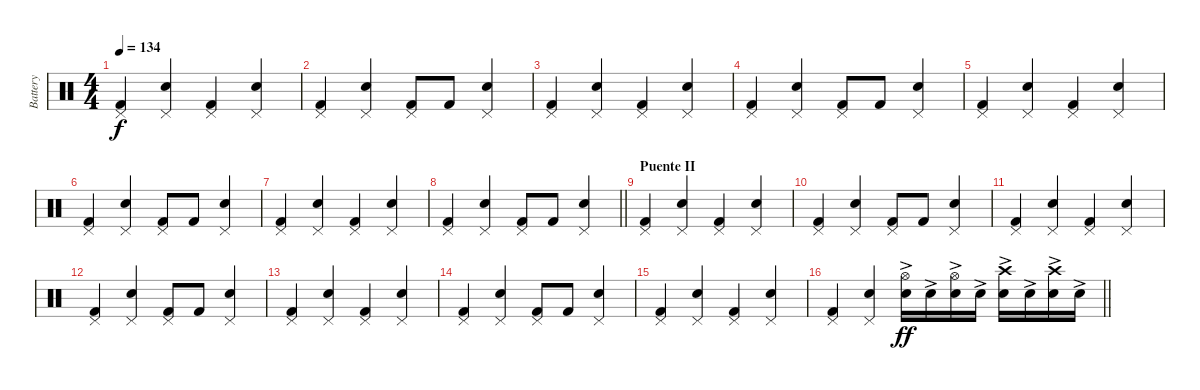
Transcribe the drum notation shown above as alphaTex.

\track ("Battery" "Battery") {instrument percussion}
\staff {score}
\articulation defaults
\ts (4 4)
\tempo 134
\clef neutral
\ks c
("Pedal Hi-Hat (hit)" "Kick (hit) 2").4{dy f} ("Pedal Hi-Hat (hit)" "Snare (hit) 2").4 ("Pedal Hi-Hat (hit)" "Kick (hit) 2").4 ("Pedal Hi-Hat (hit)" "Snare (hit) 2").4 |
("Pedal Hi-Hat (hit)" "Kick (hit) 2").4 ("Pedal Hi-Hat (hit)" "Snare (hit) 2").4 ("Pedal Hi-Hat (hit)" "Kick (hit) 2").8 "Kick (hit) 2".8 ("Pedal Hi-Hat (hit)" "Snare (hit) 2").4 |
("Pedal Hi-Hat (hit)" "Kick (hit) 2").4 ("Pedal Hi-Hat (hit)" "Snare (hit) 2").4 ("Pedal Hi-Hat (hit)" "Kick (hit) 2").4 ("Pedal Hi-Hat (hit)" "Snare (hit) 2").4 |
("Pedal Hi-Hat (hit)" "Kick (hit) 2").4 ("Pedal Hi-Hat (hit)" "Snare (hit) 2").4 ("Pedal Hi-Hat (hit)" "Kick (hit) 2").8 "Kick (hit) 2".8 ("Pedal Hi-Hat (hit)" "Snare (hit) 2").4 |
("Pedal Hi-Hat (hit)" "Kick (hit) 2").4 ("Pedal Hi-Hat (hit)" "Snare (hit) 2").4 ("Pedal Hi-Hat (hit)" "Kick (hit) 2").4 ("Pedal Hi-Hat (hit)" "Snare (hit) 2").4 |
("Pedal Hi-Hat (hit)" "Kick (hit) 2").4 ("Pedal Hi-Hat (hit)" "Snare (hit) 2").4 ("Pedal Hi-Hat (hit)" "Kick (hit) 2").8 "Kick (hit) 2".8 ("Pedal Hi-Hat (hit)" "Snare (hit) 2").4 |
("Pedal Hi-Hat (hit)" "Kick (hit) 2").4 ("Pedal Hi-Hat (hit)" "Snare (hit) 2").4 ("Pedal Hi-Hat (hit)" "Kick (hit) 2").4 ("Pedal Hi-Hat (hit)" "Snare (hit) 2").4 |
\barLineRight lightlight
("Pedal Hi-Hat (hit)" "Kick (hit) 2").4 ("Pedal Hi-Hat (hit)" "Snare (hit) 2").4 ("Pedal Hi-Hat (hit)" "Kick (hit) 2").8 "Kick (hit) 2".8 ("Pedal Hi-Hat (hit)" "Snare (hit) 2").4 |
\section ("" "Puente II")
("Pedal Hi-Hat (hit)" "Kick (hit) 2").4 ("Pedal Hi-Hat (hit)" "Snare (hit) 2").4 ("Pedal Hi-Hat (hit)" "Kick (hit) 2").4 ("Pedal Hi-Hat (hit)" "Snare (hit) 2").4 |
("Pedal Hi-Hat (hit)" "Kick (hit) 2").4 ("Pedal Hi-Hat (hit)" "Snare (hit) 2").4 ("Pedal Hi-Hat (hit)" "Kick (hit) 2").8 "Kick (hit) 2".8 ("Pedal Hi-Hat (hit)" "Snare (hit) 2").4 |
("Pedal Hi-Hat (hit)" "Kick (hit) 2").4 ("Pedal Hi-Hat (hit)" "Snare (hit) 2").4 ("Pedal Hi-Hat (hit)" "Kick (hit) 2").4 ("Pedal Hi-Hat (hit)" "Snare (hit) 2").4 |
("Pedal Hi-Hat (hit)" "Kick (hit) 2").4 ("Pedal Hi-Hat (hit)" "Snare (hit) 2").4 ("Pedal Hi-Hat (hit)" "Kick (hit) 2").8 "Kick (hit) 2".8 ("Pedal Hi-Hat (hit)" "Snare (hit) 2").4 |
("Pedal Hi-Hat (hit)" "Kick (hit) 2").4 ("Pedal Hi-Hat (hit)" "Snare (hit) 2").4 ("Pedal Hi-Hat (hit)" "Kick (hit) 2").4 ("Pedal Hi-Hat (hit)" "Snare (hit) 2").4 |
("Pedal Hi-Hat (hit)" "Kick (hit) 2").4 ("Pedal Hi-Hat (hit)" "Snare (hit) 2").4 ("Pedal Hi-Hat (hit)" "Kick (hit) 2").8 "Kick (hit) 2".8 ("Pedal Hi-Hat (hit)" "Snare (hit) 2").4 |
("Pedal Hi-Hat (hit)" "Kick (hit) 2").4 ("Pedal Hi-Hat (hit)" "Snare (hit) 2").4 ("Pedal Hi-Hat (hit)" "Kick (hit) 2").4 ("Pedal Hi-Hat (hit)" "Snare (hit) 2").4 |
\barLineRight lightlight
("Pedal Hi-Hat (hit)" "Kick (hit) 2").4 ("Pedal Hi-Hat (hit)" "Snare (hit) 2").4 ("Hi-Hat (open)"{ac} "Snare (hit) 2"{ac}).16{dy ff} "Snare (hit) 2"{ac}.16 ("Hi-Hat (open)" "Snare (hit) 2"{ac}).16 "Snare (hit) 2"{ac}.16 ("Crash high (hit)"{ac} "Snare (hit) 2"{ac}).16 "Snare (hit) 2"{ac}.16 ("Crash high (hit)" "Snare (hit) 2"{ac}).16 "Snare (hit) 2"{ac}.16
